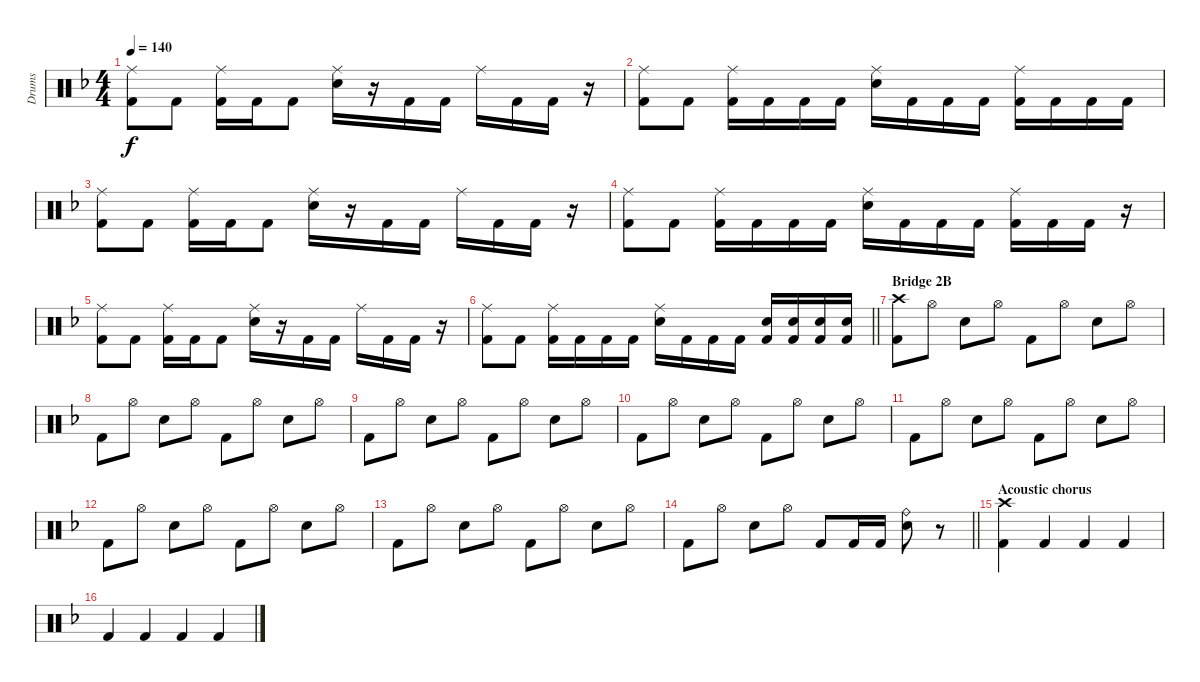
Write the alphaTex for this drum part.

\track ("Drums" "Drums") {instrument percussion}
\staff {score}
\articulation defaults
\ts (4 4)
\tempo 140
\clef neutral
\ks dminor
("Ride (middle)" "Kick (hit) 2").8{dy f} "Kick (hit) 2".8 ("Ride (middle)" "Kick (hit) 2").16 "Kick (hit) 2".16 "Kick (hit) 2".8 ("Ride (middle)" "Snare (hit) 2").16 r.16 "Kick (hit) 2".16 "Kick (hit) 2".16 "Ride (middle)".16 "Kick (hit) 2".16 "Kick (hit) 2".16 r.16 |
("Ride (middle)" "Kick (hit) 2").8 "Kick (hit) 2".8 ("Ride (middle)" "Kick (hit) 2").16 "Kick (hit) 2".16 "Kick (hit) 2".16 "Kick (hit) 2".16 ("Ride (middle)" "Snare (hit) 2").16 "Kick (hit) 2".16 "Kick (hit) 2".16 "Kick (hit) 2".16 ("Ride (middle)" "Kick (hit) 2").16 "Kick (hit) 2".16 "Kick (hit) 2".16 "Kick (hit) 2".16 |
("Ride (middle)" "Kick (hit) 2").8 "Kick (hit) 2".8 ("Ride (middle)" "Kick (hit) 2").16 "Kick (hit) 2".16 "Kick (hit) 2".8 ("Ride (middle)" "Snare (hit) 2").16 r.16 "Kick (hit) 2".16 "Kick (hit) 2".16 "Ride (middle)".16 "Kick (hit) 2".16 "Kick (hit) 2".16 r.16 |
("Ride (middle)" "Kick (hit) 2").8 "Kick (hit) 2".8 ("Ride (middle)" "Kick (hit) 2").16 "Kick (hit) 2".16 "Kick (hit) 2".16 "Kick (hit) 2".16 ("Ride (middle)" "Snare (hit) 2").16 "Kick (hit) 2".16 "Kick (hit) 2".16 "Kick (hit) 2".16 ("Ride (middle)" "Kick (hit) 2").16 "Kick (hit) 2".16 "Kick (hit) 2".16 r.16 |
("Ride (middle)" "Kick (hit) 2").8 "Kick (hit) 2".8 ("Ride (middle)" "Kick (hit) 2").16 "Kick (hit) 2".16 "Kick (hit) 2".8 ("Ride (middle)" "Snare (hit) 2").16 r.16 "Kick (hit) 2".16 "Kick (hit) 2".16 "Ride (middle)".16 "Kick (hit) 2".16 "Kick (hit) 2".16 r.16 |
\barLineRight lightlight
("Ride (middle)" "Kick (hit) 2").8 "Kick (hit) 2".8 ("Ride (middle)" "Kick (hit) 2").16 "Kick (hit) 2".16 "Kick (hit) 2".16 "Kick (hit) 2".16 ("Ride (middle)" "Snare (hit) 2").16 "Kick (hit) 2".16 "Kick (hit) 2".16 "Kick (hit) 2".16 ("Snare (hit) 2" "Kick (hit) 2").16 ("Snare (hit) 2" "Kick (hit) 2").16 ("Snare (hit) 2" "Kick (hit) 2").16 ("Snare (hit) 2" "Kick (hit) 2").16 |
\section ("" "Bridge 2B")
("Crash high (hit)" "Kick (hit) 2").8 "Hi-Hat (open)".8 "Snare (hit) 2".8 "Hi-Hat (open)".8 "Kick (hit) 2".8 "Hi-Hat (open)".8 "Snare (hit) 2".8 "Hi-Hat (open)".8 |
"Kick (hit) 2".8 "Hi-Hat (open)".8 "Snare (hit) 2".8 "Hi-Hat (open)".8 "Kick (hit) 2".8 "Hi-Hat (open)".8 "Snare (hit) 2".8 "Hi-Hat (open)".8 |
"Kick (hit) 2".8 "Hi-Hat (open)".8 "Snare (hit) 2".8 "Hi-Hat (open)".8 "Kick (hit) 2".8 "Hi-Hat (open)".8 "Snare (hit) 2".8 "Hi-Hat (open)".8 |
"Kick (hit) 2".8 "Hi-Hat (open)".8 "Snare (hit) 2".8 "Hi-Hat (open)".8 "Kick (hit) 2".8 "Hi-Hat (open)".8 "Snare (hit) 2".8 "Hi-Hat (open)".8 |
"Kick (hit) 2".8 "Hi-Hat (open)".8 "Snare (hit) 2".8 "Hi-Hat (open)".8 "Kick (hit) 2".8 "Hi-Hat (open)".8 "Snare (hit) 2".8 "Hi-Hat (open)".8 |
"Kick (hit) 2".8 "Hi-Hat (open)".8 "Snare (hit) 2".8 "Hi-Hat (open)".8 "Kick (hit) 2".8 "Hi-Hat (open)".8 "Snare (hit) 2".8 "Hi-Hat (open)".8 |
"Kick (hit) 2".8 "Hi-Hat (open)".8 "Snare (hit) 2".8 "Hi-Hat (open)".8 "Kick (hit) 2".8 "Hi-Hat (open)".8 "Snare (hit) 2".8 "Hi-Hat (open)".8 |
\barLineRight lightlight "Kick (hit) 2".8 "Hi-Hat (open)".8 "Snare (hit) 2".8 "Hi-Hat (open)".8 "Kick (hit) 2".8 "Kick (hit) 2".16 "Kick (hit) 2".16
("Ride (bell)" "Snare (hit) 2").8 r.8 |
\section ("" "Acoustic chorus")
("Crash high (hit)" "Kick (hit) 2").4 "Kick (hit) 2".4 "Kick (hit) 2".4 "Kick (hit) 2".4 |
"Kick (hit) 2".4 "Kick (hit) 2".4 "Kick (hit) 2".4 "Kick (hit) 2".4
